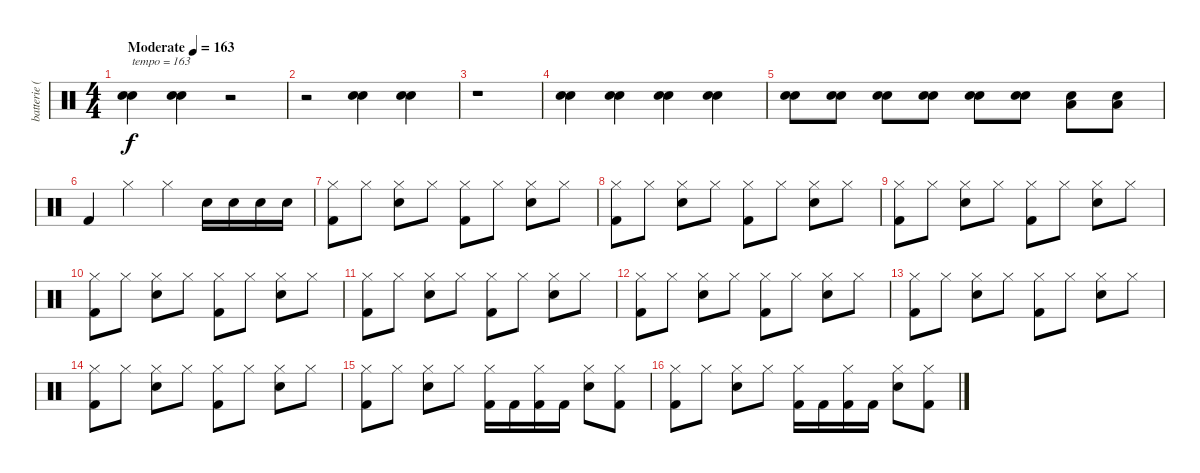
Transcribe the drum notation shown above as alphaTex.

\track ("batterie ( Carlos ) " "batterie (") {instrument percussion}
\staff {score}
\articulation defaults
\ts (4 4)
\tempo (163 "Moderate")
\clef neutral
\ks c
("Electric Snare (hit)" "Snare (hit) 2").4{txt "tempo = 163" dy f} ("Electric Snare (hit)" "Snare (hit) 2").4 r.2 |
r.2 ("Electric Snare (hit)" "Snare (hit) 2").4 ("Electric Snare (hit)" "Snare (hit) 2").4 |
r.1 |
("Electric Snare (hit)" "Snare (hit) 2").4 ("Electric Snare (hit)" "Snare (hit) 2").4 ("Electric Snare (hit)" "Snare (hit) 2").4 ("Electric Snare (hit)" "Snare (hit) 2").4 |
("Electric Snare (hit)" "Snare (hit) 2").8 ("Electric Snare (hit)" "Snare (hit) 2").8 ("Electric Snare (hit)" "Snare (hit) 2").8 ("Electric Snare (hit)" "Snare (hit) 2").8 ("Electric Snare (hit)" "Snare (hit) 2").8 ("Electric Snare (hit)" "Snare (hit) 2").8 ("Low Floor Tom (hit)" "Electric Snare (hit)").8 ("Low Floor Tom (hit)" "Electric Snare (hit)").8 |
"Kick (hit) 2".4 "Hi-Hat (closed)".4 "Hi-Hat (closed)".4 "Electric Snare (hit)".16 "Electric Snare (hit)".16 "Electric Snare (hit)".16 "Electric Snare (hit)".16 |
("Hi-Hat (closed)" "Kick (hit) 2").8 "Hi-Hat (closed)".8 ("Hi-Hat (closed)" "Electric Snare (hit)").8 "Hi-Hat (closed)".8 ("Hi-Hat (closed)" "Kick (hit) 2").8 "Hi-Hat (closed)".8 ("Hi-Hat (closed)" "Electric Snare (hit)").8 "Hi-Hat (closed)".8 |
("Hi-Hat (closed)" "Kick (hit) 2").8 "Hi-Hat (closed)".8 ("Hi-Hat (closed)" "Electric Snare (hit)").8 "Hi-Hat (closed)".8 ("Hi-Hat (closed)" "Kick (hit) 2").8 "Hi-Hat (closed)".8 ("Hi-Hat (closed)" "Electric Snare (hit)").8 "Hi-Hat (closed)".8 |
("Hi-Hat (closed)" "Kick (hit) 2").8 "Hi-Hat (closed)".8 ("Hi-Hat (closed)" "Electric Snare (hit)").8 "Hi-Hat (closed)".8 ("Hi-Hat (closed)" "Kick (hit) 2").8 "Hi-Hat (closed)".8 ("Hi-Hat (closed)" "Electric Snare (hit)").8 "Hi-Hat (closed)".8 |
("Hi-Hat (closed)" "Kick (hit) 2").8 "Hi-Hat (closed)".8 ("Hi-Hat (closed)" "Electric Snare (hit)").8 "Hi-Hat (closed)".8 ("Hi-Hat (closed)" "Kick (hit) 2").8 "Hi-Hat (closed)".8 ("Hi-Hat (closed)" "Electric Snare (hit)").8 "Hi-Hat (closed)".8 |
("Hi-Hat (closed)" "Kick (hit) 2").8 "Hi-Hat (closed)".8 ("Hi-Hat (closed)" "Electric Snare (hit)").8 "Hi-Hat (closed)".8 ("Hi-Hat (closed)" "Kick (hit) 2").8 "Hi-Hat (closed)".8 ("Hi-Hat (closed)" "Electric Snare (hit)").8 "Hi-Hat (closed)".8 |
("Hi-Hat (closed)" "Kick (hit) 2").8 "Hi-Hat (closed)".8 ("Hi-Hat (closed)" "Electric Snare (hit)").8 "Hi-Hat (closed)".8 ("Hi-Hat (closed)" "Kick (hit) 2").8 "Hi-Hat (closed)".8 ("Hi-Hat (closed)" "Electric Snare (hit)").8 "Hi-Hat (closed)".8 |
("Hi-Hat (closed)" "Kick (hit) 2").8 "Hi-Hat (closed)".8 ("Hi-Hat (closed)" "Electric Snare (hit)").8 "Hi-Hat (closed)".8 ("Hi-Hat (closed)" "Kick (hit) 2").8 "Hi-Hat (closed)".8 ("Hi-Hat (closed)" "Electric Snare (hit)").8 "Hi-Hat (closed)".8 |
("Hi-Hat (closed)" "Kick (hit) 2").8 "Hi-Hat (closed)".8 ("Hi-Hat (closed)" "Electric Snare (hit)").8 "Hi-Hat (closed)".8 ("Hi-Hat (closed)" "Kick (hit) 2").8 "Hi-Hat (closed)".8 ("Hi-Hat (closed)" "Electric Snare (hit)").8 "Hi-Hat (closed)".8 |
("Hi-Hat (closed)" "Kick (hit) 2").8 "Hi-Hat (closed)".8 ("Hi-Hat (closed)" "Electric Snare (hit)").8 "Hi-Hat (closed)".8 ("Hi-Hat (closed)" "Kick (hit) 2").16 "Kick (hit) 2".16 ("Hi-Hat (closed)" "Kick (hit) 2").16 "Kick (hit) 2".16 ("Hi-Hat (closed)" "Electric Snare (hit)").8 ("Hi-Hat (closed)" "Kick (hit) 2").8 |
("Hi-Hat (closed)" "Kick (hit) 2").8 "Hi-Hat (closed)".8 ("Hi-Hat (closed)" "Electric Snare (hit)").8 "Hi-Hat (closed)".8 ("Hi-Hat (closed)" "Kick (hit) 2").16 "Kick (hit) 2".16 ("Hi-Hat (closed)" "Kick (hit) 2").16 "Kick (hit) 2".16 ("Hi-Hat (closed)" "Electric Snare (hit)").8 ("Hi-Hat (closed)" "Kick (hit) 2").8
